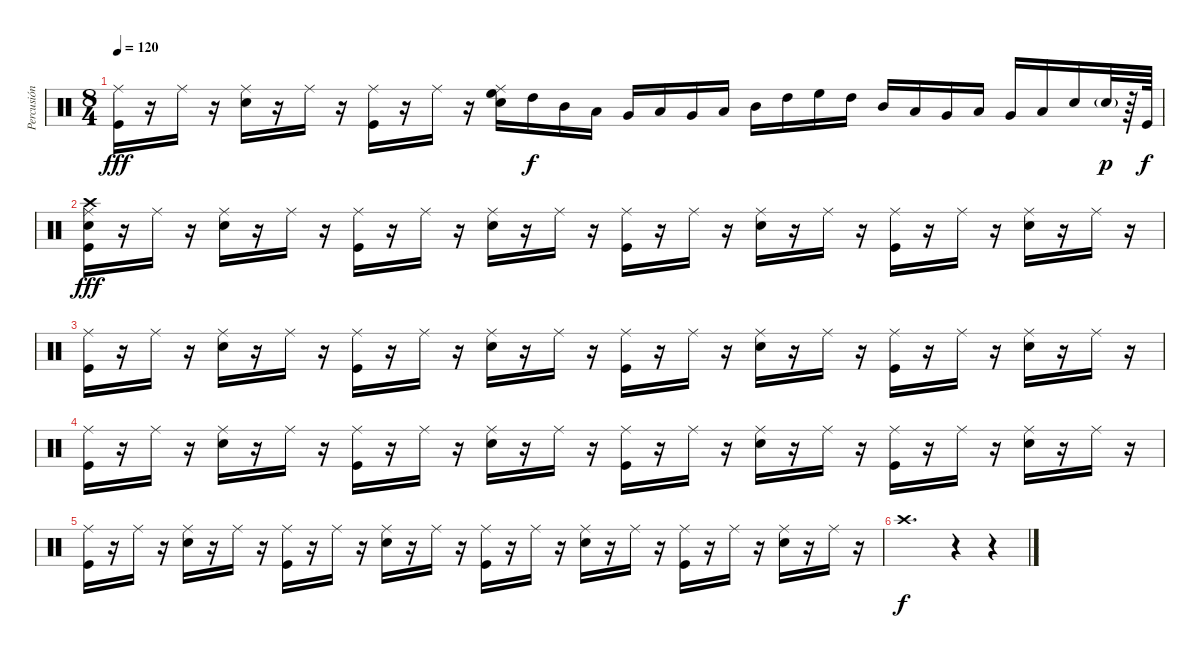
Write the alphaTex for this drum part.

\track ("Percusión" "Percusión") {instrument percussion}
\staff {score}
\articulation defaults
\ts (8 4)
\tempo 120
\clef neutral
\ks c
("Ride (middle)" "Kick (hit)").16{dy fff} r.16 "Ride (middle)".16 r.16 ("Snare (hit) 2" "Ride (middle)").16 r.16 "Ride (middle)".16 r.16 ("Kick (hit)" "Ride (middle)").16 r.16 "Ride (middle)".16 r.16 ("Snare (hit) 2" "Ride (middle)" "High Floor Tom (hit)").16 "High Tom (hit)".16{dy f} "Mid Tom (hit)".16 "Low Tom (hit)".16 "Very Low Tom (hit)".16 "Low Floor Tom (hit)".16 "Very Low Tom (hit)".16 "Low Tom (hit)".16 "Mid Tom (hit)".16 "High Tom (hit)".16 "High Floor Tom (hit)".16 "High Tom (hit)".16 "Mid Tom (hit)".16 "Low Tom (hit)".16 "Very Low Tom (hit)".16 "Low Floor Tom (hit)".16 "Very Low Tom (hit)".16 "Low Tom (hit)".16 "Snare (hit) 2".16 "Snare (hit) 2"{g}.32{dy p} r.64 "Kick (hit)".64{dy f} |
("Snare (hit) 2" "Ride (middle)" "Crash high (hit)" "Kick (hit)").16{dy fff} r.16 "Ride (middle)".16 r.16 ("Snare (hit) 2" "Ride (middle)").16 r.16 "Ride (middle)".16 r.16 ("Kick (hit)" "Ride (middle)").16 r.16 "Ride (middle)".16 r.16 ("Snare (hit) 2" "Ride (middle)").16 r.16 "Ride (middle)".16 r.16 ("Kick (hit)" "Ride (middle)").16 r.16 "Ride (middle)".16 r.16 ("Snare (hit) 2" "Ride (middle)").16 r.16 "Ride (middle)".16 r.16 ("Kick (hit)" "Ride (middle)").16 r.16 "Ride (middle)".16 r.16 ("Snare (hit) 2" "Ride (middle)").16 r.16 "Ride (middle)".16 r.16 |
("Ride (middle)" "Kick (hit)").16 r.16 "Ride (middle)".16 r.16 ("Snare (hit) 2" "Ride (middle)").16 r.16 "Ride (middle)".16 r.16 ("Kick (hit)" "Ride (middle)").16 r.16 "Ride (middle)".16 r.16 ("Snare (hit) 2" "Ride (middle)").16 r.16 "Ride (middle)".16 r.16 ("Kick (hit)" "Ride (middle)").16 r.16 "Ride (middle)".16 r.16 ("Snare (hit) 2" "Ride (middle)").16 r.16 "Ride (middle)".16 r.16 ("Kick (hit)" "Ride (middle)").16 r.16 "Ride (middle)".16 r.16 ("Snare (hit) 2" "Ride (middle)").16 r.16 "Ride (middle)".16 r.16 |
("Ride (middle)" "Kick (hit)").16 r.16 "Ride (middle)".16 r.16 ("Snare (hit) 2" "Ride (middle)").16 r.16 "Ride (middle)".16 r.16 ("Kick (hit)" "Ride (middle)").16 r.16 "Ride (middle)".16 r.16 ("Snare (hit) 2" "Ride (middle)").16 r.16 "Ride (middle)".16 r.16 ("Kick (hit)" "Ride (middle)").16 r.16 "Ride (middle)".16 r.16 ("Snare (hit) 2" "Ride (middle)").16 r.16 "Ride (middle)".16 r.16 ("Kick (hit)" "Ride (middle)").16 r.16 "Ride (middle)".16 r.16 ("Snare (hit) 2" "Ride (middle)").16 r.16 "Ride (middle)".16 r.16 |
("Ride (middle)" "Kick (hit)").16 r.16 "Ride (middle)".16 r.16 ("Snare (hit) 2" "Ride (middle)").16 r.16 "Ride (middle)".16 r.16 ("Kick (hit)" "Ride (middle)").16 r.16 "Ride (middle)".16 r.16 ("Snare (hit) 2" "Ride (middle)").16 r.16 "Ride (middle)".16 r.16 ("Kick (hit)" "Ride (middle)").16 r.16 "Ride (middle)".16 r.16 ("Snare (hit) 2" "Ride (middle)").16 r.16 "Ride (middle)".16 r.16 ("Kick (hit)" "Ride (middle)").16 r.16 "Ride (middle)".16 r.16 ("Snare (hit) 2" "Ride (middle)").16 r.16 "Ride (middle)".16 r.16 |
"Crash high (hit)".1{d dy f} r.4 r.4
